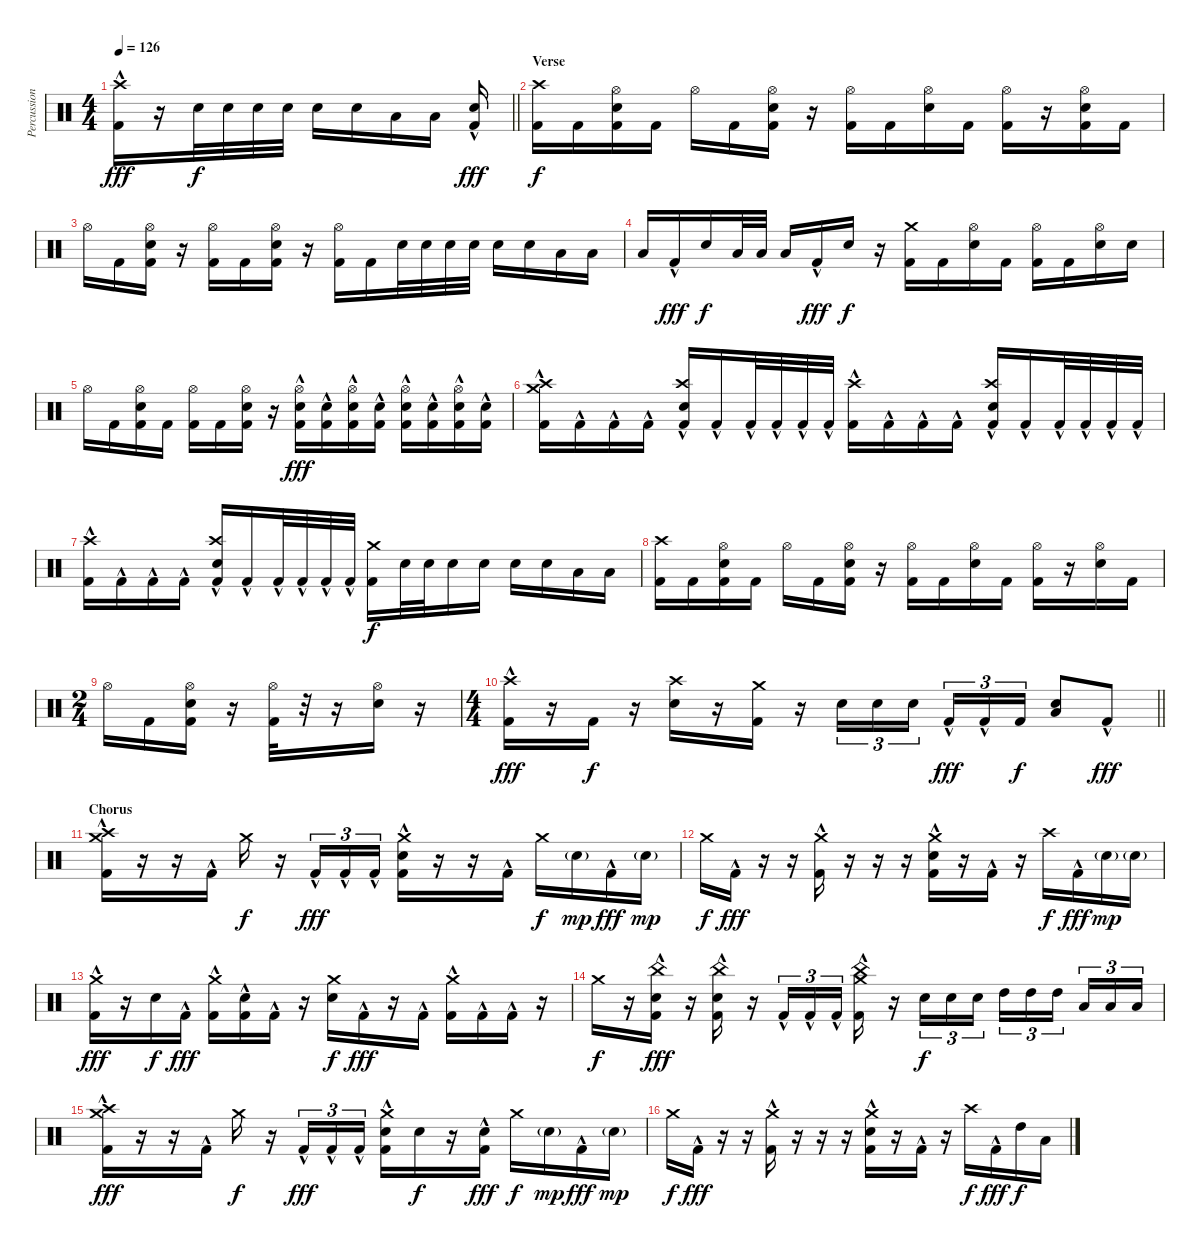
\track ("Percussion" "Percussion") {instrument percussion}
\staff {score}
\articulation defaults
\ts (4 4)
\tempo 126
\clef neutral
\barLineRight lightlight
\ks aminor
("Kick (hit) 2"{hac} "Crash high (hit)").16{dy fff} r.16 "Electric Snare (hit)".32{dy f} "Electric Snare (hit)".32 "Electric Snare (hit)".32 "Electric Snare (hit)".32 "Electric Snare (hit)".16 "Electric Snare (hit)".16 "Low Floor Tom (hit)".16 "Low Floor Tom (hit)".16 ("Kick (hit) 2"{hac} "Electric Snare (hit)").16{dy fff} |
\section ("" "Verse")
("Crash high (hit)" "Kick (hit) 2").16{dy f} "Kick (hit) 2".16 ("Hi-Hat (open)" "Electric Snare (hit)" "Kick (hit) 2").16 "Kick (hit) 2".16 "Hi-Hat (open)".16 "Kick (hit) 2".16 ("Hi-Hat (open)" "Electric Snare (hit)" "Kick (hit) 2").16 r.16 ("Hi-Hat (open)" "Kick (hit) 2").16 "Kick (hit) 2".16 ("Hi-Hat (open)" "Electric Snare (hit)").16 "Kick (hit) 2".16 ("Hi-Hat (open)" "Kick (hit) 2").16 r.16 ("Hi-Hat (open)" "Electric Snare (hit)" "Kick (hit) 2").16 "Kick (hit) 2".16 |
"Hi-Hat (open)".16 "Kick (hit) 2".16 ("Hi-Hat (open)" "Electric Snare (hit)" "Kick (hit) 2").16 r.16 ("Hi-Hat (open)" "Kick (hit) 2").16 "Kick (hit) 2".16 ("Hi-Hat (open)" "Electric Snare (hit)" "Kick (hit) 2").16 r.16 ("Hi-Hat (open)" "Kick (hit) 2").16 "Kick (hit) 2".16 "Electric Snare (hit)".32 "Electric Snare (hit)".32 "Electric Snare (hit)".32 "Electric Snare (hit)".32 "Electric Snare (hit)".16 "Electric Snare (hit)".16 "Low Tom (hit)".16 "Low Tom (hit)".16 |
"Low Floor Tom (hit)".16 "Kick (hit) 2"{hac}.16{dy fff} "Electric Snare (hit)".16{dy f} "Low Tom (hit)".32 "Low Tom (hit)".32 "Low Floor Tom (hit)".16 "Kick (hit) 2"{hac}.16{dy fff} "Electric Snare (hit)".16{dy f} r.16 ("Crash medium (hit)" "Kick (hit) 2").16 "Kick (hit) 2".16 ("Hi-Hat (open)" "Electric Snare (hit)").16 "Kick (hit) 2".16 ("Hi-Hat (open)" "Kick (hit) 2").16 "Kick (hit) 2".16 ("Hi-Hat (open)" "Electric Snare (hit)").16 "Electric Snare (hit)".16 |
"Hi-Hat (open)".16 "Kick (hit) 2".16 ("Hi-Hat (open)" "Electric Snare (hit)" "Kick (hit) 2").16 "Kick (hit) 2".16 ("Hi-Hat (open)" "Kick (hit) 2").16 "Kick (hit) 2".16 ("Hi-Hat (open)" "Electric Snare (hit)" "Kick (hit) 2").16 r.16 ("Hi-Hat (open)" "Electric Snare (hit)" "Kick (hit) 2"{hac}).16{dy fff} ("Electric Snare (hit)" "Kick (hit) 2"{hac}).16 ("Hi-Hat (open)" "Electric Snare (hit)" "Kick (hit) 2"{hac}).16 ("Electric Snare (hit)" "Kick (hit) 2"{hac}).16 ("Hi-Hat (open)" "Electric Snare (hit)" "Kick (hit) 2"{hac}).16 ("Electric Snare (hit)" "Kick (hit) 2"{hac}).16 ("Hi-Hat (open)" "Electric Snare (hit)" "Kick (hit) 2"{hac}).16 ("Electric Snare (hit)" "Kick (hit) 2"{hac}).16 |
("Crash high (hit)" "Crash medium (hit)" "Kick (hit) 2"{hac}).16 "Kick (hit) 2"{hac}.16 "Kick (hit) 2"{hac}.16 "Kick (hit) 2"{hac}.16 ("Crash high (hit)" "Electric Snare (hit)" "Kick (hit) 2"{hac}).16 "Kick (hit) 2"{hac}.16 "Kick (hit) 2"{hac}.32 "Kick (hit) 2"{hac}.32 "Kick (hit) 2"{hac}.32 "Kick (hit) 2"{hac}.32 ("Crash high (hit)" "Kick (hit) 2"{hac}).16 "Kick (hit) 2"{hac}.16 "Kick (hit) 2"{hac}.16 "Kick (hit) 2"{hac}.16 ("Crash high (hit)" "Electric Snare (hit)" "Kick (hit) 2"{hac}).16 "Kick (hit) 2"{hac}.16 "Kick (hit) 2"{hac}.32 "Kick (hit) 2"{hac}.32 "Kick (hit) 2"{hac}.32 "Kick (hit) 2"{hac}.32 |
("Crash high (hit)" "Kick (hit) 2"{hac}).16 "Kick (hit) 2"{hac}.16 "Kick (hit) 2"{hac}.16 "Kick (hit) 2"{hac}.16 ("Crash high (hit)" "Electric Snare (hit)" "Kick (hit) 2"{hac}).16 "Kick (hit) 2"{hac}.16 "Kick (hit) 2"{hac}.32 "Kick (hit) 2"{hac}.32 "Kick (hit) 2"{hac}.32 "Kick (hit) 2"{hac}.32 ("Crash medium (hit)" "Kick (hit) 2").16{dy f} "Electric Snare (hit)".32 "Electric Snare (hit)".32 "Electric Snare (hit)".16 "Electric Snare (hit)".16 "Electric Snare (hit)".16 "Electric Snare (hit)".16 "Low Tom (hit)".16 "Low Tom (hit)".16 |
("Crash high (hit)" "Kick (hit) 2").16 "Kick (hit) 2".16 ("Hi-Hat (open)" "Electric Snare (hit)" "Kick (hit) 2").16 "Kick (hit) 2".16 "Hi-Hat (open)".16 "Kick (hit) 2".16 ("Hi-Hat (open)" "Electric Snare (hit)" "Kick (hit) 2").16 r.16 ("Hi-Hat (open)" "Kick (hit) 2").16 "Kick (hit) 2".16 ("Hi-Hat (open)" "Electric Snare (hit)").16 "Kick (hit) 2".16 ("Hi-Hat (open)" "Kick (hit) 2").16 r.16 ("Hi-Hat (open)" "Electric Snare (hit)").16 "Kick (hit) 2".16 |
\ts (2 4)
\ks c "Hi-Hat (open)".16 "Kick (hit) 2".16
("Hi-Hat (open)" "Electric Snare (hit)" "Kick (hit) 2").16 r.16 ("Hi-Hat (open)" "Kick (hit) 2").32 r.32 r.16 ("Hi-Hat (open)" "Electric Snare (hit)").16 r.16 |
\ts (4 4)
\barLineRight lightlight
("Kick (hit) 2"{hac} "Crash high (hit)").16{dy fff} r.16 "Kick (hit) 2".16{dy f} r.16 ("Electric Snare (hit)" "Crash high (hit)").16 r.16 ("Kick (hit) 2" "Crash medium (hit)").16 r.16 "Electric Snare (hit)".16{tu (3 2)} "Electric Snare (hit)".16{tu (3 2)} "Electric Snare (hit)".16{tu (3 2) beam splitsecondary} "Kick (hit) 2"{hac}.16{tu (3 2) dy fff} "Kick (hit) 2"{hac}.16{tu (3 2)} "Kick (hit) 2".16{tu (3 2) dy f} ("Electric Snare (hit)" "Low Tom (hit)").8 "Kick (hit) 2"{hac}.8{dy fff} |
\section ("" "Chorus")
\ks aminor
("Kick (hit) 2"{hac} "Crash medium (hit)" "Crash high (hit)").16 r.16 r.16 "Kick (hit) 2"{hac}.16 "Crash medium (hit)".16{dy f} r.16 "Kick (hit) 2"{hac}.16{tu (3 2) dy fff} "Kick (hit) 2"{hac}.16{tu (3 2)} "Kick (hit) 2"{hac}.16{tu (3 2)} ("Kick (hit) 2"{hac} "Crash medium (hit)" "Electric Snare (hit)").16 r.16 r.16 "Kick (hit) 2"{hac}.16 "Crash medium (hit)".16{dy f} "Electric Snare (hit)"{g}.16{dy mp} "Kick (hit) 2"{hac}.16{dy fff} "Electric Snare (hit)"{g}.16{dy mp} |
"Crash medium (hit)".16{dy f} "Kick (hit) 2"{hac}.16{dy fff} r.16 r.16 ("Kick (hit) 2"{hac} "Crash medium (hit)").16 r.16 r.16 r.16 ("Kick (hit) 2"{hac} "Electric Snare (hit)" "Crash medium (hit)").16 r.16 "Kick (hit) 2"{hac}.16 r.16 "Crash high (hit)".16{dy f} "Kick (hit) 2"{hac}.16{dy fff} "Electric Snare (hit)"{g}.16{dy mp} "Electric Snare (hit)"{g}.16 |
("Kick (hit) 2"{hac} "Crash medium (hit)").16{dy fff} r.16 "Electric Snare (hit)".16{dy f} "Kick (hit) 2"{hac}.16{dy fff} ("Kick (hit) 2"{hac} "Crash medium (hit)").16 ("Kick (hit) 2"{hac} "Electric Snare (hit)").16 "Kick (hit) 2"{hac}.16 r.16 ("Crash medium (hit)" "Electric Snare (hit)").16{dy f} "Kick (hit) 2"{hac}.16{dy fff} r.16 "Kick (hit) 2"{hac}.16 ("Kick (hit) 2"{hac} "Crash medium (hit)").16 "Kick (hit) 2"{hac}.16 "Kick (hit) 2"{hac}.16 r.16 |
"Crash medium (hit)".16{dy f} r.16 ("Kick (hit) 2"{hac} "China (hit)" "Electric Snare (hit)").16{dy fff} r.16 ("Kick (hit) 2"{hac} "China (hit)" "Electric Snare (hit)").16 r.16 "Kick (hit) 2"{hac}.16{tu (3 2)} "Kick (hit) 2"{hac}.16{tu (3 2)} "Kick (hit) 2"{hac}.16{tu (3 2)} ("Kick (hit) 2"{hac} "Crash medium (hit)" "China (hit)").16 r.16 "Electric Snare (hit)".16{tu (3 2) dy f} "Electric Snare (hit)".16{tu (3 2)} "Electric Snare (hit)".16{tu (3 2)} "High Tom (hit)".16{tu (3 2)} "High Tom (hit)".16{tu (3 2)} "High Tom (hit)".16{tu (3 2) beam splitsecondary} "Low Tom (hit)".16{tu (3 2)} "Low Tom (hit)".16{tu (3 2)} "Low Tom (hit)".16{tu (3 2)} |
("Kick (hit) 2"{hac} "Crash medium (hit)" "Crash high (hit)").16{dy fff} r.16 r.16 "Kick (hit) 2"{hac}.16 "Crash medium (hit)".16{dy f} r.16 "Kick (hit) 2"{hac}.16{tu (3 2) dy fff} "Kick (hit) 2"{hac}.16{tu (3 2)} "Kick (hit) 2"{hac}.16{tu (3 2)} ("Kick (hit) 2"{hac} "Crash medium (hit)" "Electric Snare (hit)").16 "Electric Snare (hit)".16{dy f} r.16 ("Kick (hit) 2"{hac} "Electric Snare (hit)").16{dy fff} "Crash medium (hit)".16{dy f} "Electric Snare (hit)"{g}.16{dy mp} "Kick (hit) 2"{hac}.16{dy fff} "Electric Snare (hit)"{g}.16{dy mp} |
"Crash medium (hit)".16{dy f} "Kick (hit) 2"{hac}.16{dy fff} r.16 r.16 ("Kick (hit) 2"{hac} "Crash medium (hit)").16 r.16 r.16 r.16 ("Kick (hit) 2"{hac} "Electric Snare (hit)" "Crash medium (hit)").16 r.16 "Kick (hit) 2"{hac}.16 r.16 "Crash high (hit)".16{dy f} "Kick (hit) 2"{hac}.16{dy fff} "High Tom (hit)".16{dy f} "Low Floor Tom (hit)".16
